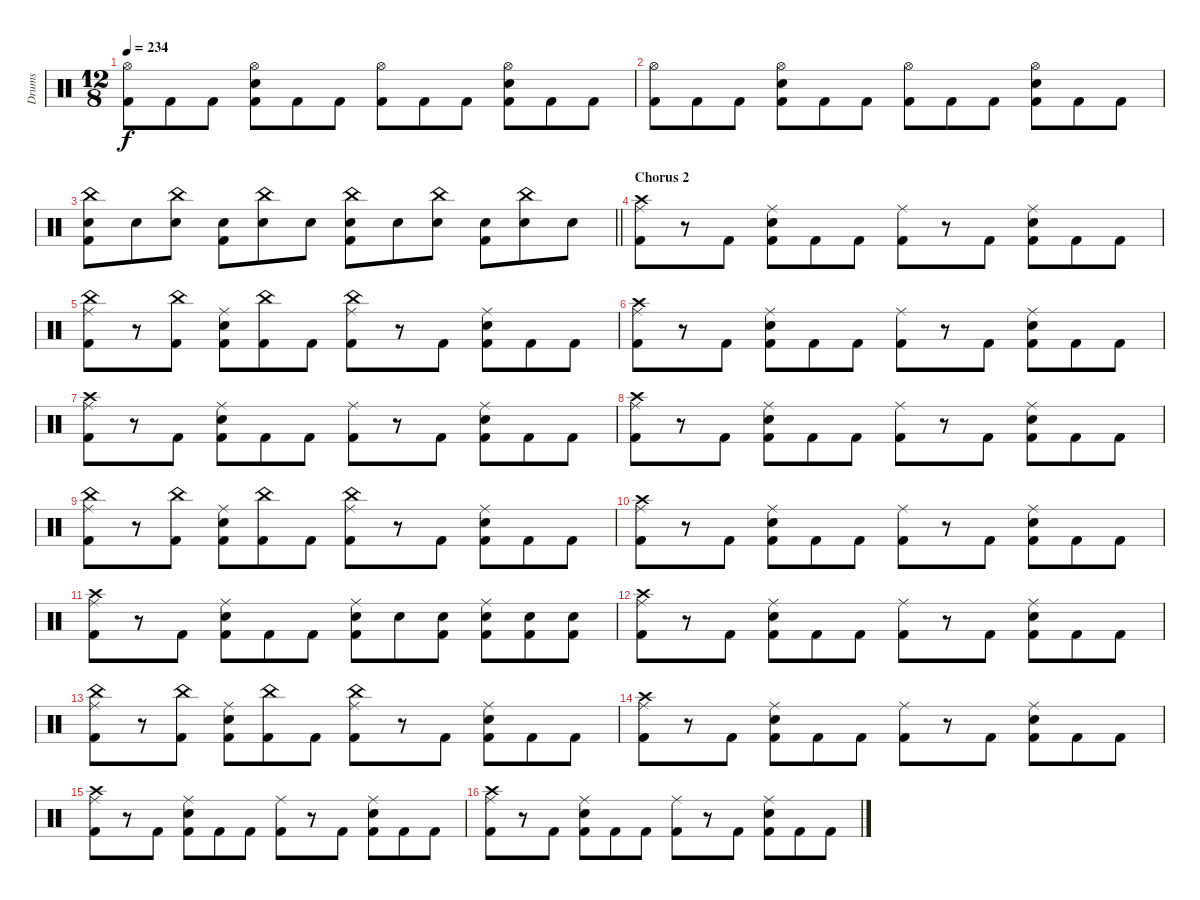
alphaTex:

\track ("Drums" "Drums") {instrument percussion}
\staff {score}
\articulation defaults
\ts (12 8)
\tempo 234
\clef neutral
\ks c
("Hi-Hat (open)" "Kick (hit) 2").8{dy f} "Kick (hit) 2".8 "Kick (hit) 2".8 ("Hi-Hat (open)" "Snare (hit) 2" "Kick (hit) 2").8 "Kick (hit) 2".8 "Kick (hit) 2".8 ("Hi-Hat (open)" "Kick (hit) 2").8 "Kick (hit) 2".8 "Kick (hit) 2".8 ("Hi-Hat (open)" "Snare (hit) 2" "Kick (hit) 2").8 "Kick (hit) 2".8 "Kick (hit) 2".8 |
("Hi-Hat (open)" "Kick (hit) 2").8 "Kick (hit) 2".8 "Kick (hit) 2".8 ("Hi-Hat (open)" "Snare (hit) 2" "Kick (hit) 2").8 "Kick (hit) 2".8 "Kick (hit) 2".8 ("Hi-Hat (open)" "Kick (hit) 2").8 "Kick (hit) 2".8 "Kick (hit) 2".8 ("Hi-Hat (open)" "Snare (hit) 2" "Kick (hit) 2").8 "Kick (hit) 2".8 "Kick (hit) 2".8 |
\barLineRight lightlight
("China (hit)" "Snare (hit) 2" "Kick (hit) 2").8 "Snare (hit) 2".8 ("China (hit)" "Snare (hit) 2").8 ("Snare (hit) 2" "Kick (hit) 2").8 ("China (hit)" "Snare (hit) 2").8 "Snare (hit) 2".8 ("China (hit)" "Snare (hit) 2" "Kick (hit) 2").8 "Snare (hit) 2".8 ("China (hit)" "Snare (hit) 2").8 ("Snare (hit) 2" "Kick (hit) 2").8 ("China (hit)" "Snare (hit) 2").8 "Snare (hit) 2".8 |
\section ("" "Chorus 2")
("Crash high (hit)" "Ride (middle)" "Kick (hit) 2").8 r.8 "Kick (hit) 2".8 ("Ride (middle)" "Snare (hit) 2" "Kick (hit) 2").8 "Kick (hit) 2".8 "Kick (hit) 2".8 ("Ride (middle)" "Kick (hit) 2").8 r.8 "Kick (hit) 2".8 ("Ride (middle)" "Snare (hit) 2" "Kick (hit) 2").8 "Kick (hit) 2".8 "Kick (hit) 2".8 |
("China (hit)" "Ride (middle)" "Kick (hit) 2").8 r.8 ("China (hit)" "Kick (hit) 2").8 ("Ride (middle)" "Snare (hit) 2" "Kick (hit) 2").8 ("China (hit)" "Kick (hit) 2").8 "Kick (hit) 2".8 ("China (hit)" "Ride (middle)" "Kick (hit) 2").8 r.8 "Kick (hit) 2".8 ("Ride (middle)" "Snare (hit) 2" "Kick (hit) 2").8 "Kick (hit) 2".8 "Kick (hit) 2".8 |
("Crash high (hit)" "Ride (middle)" "Kick (hit) 2").8 r.8 "Kick (hit) 2".8 ("Ride (middle)" "Snare (hit) 2" "Kick (hit) 2").8 "Kick (hit) 2".8 "Kick (hit) 2".8 ("Ride (middle)" "Kick (hit) 2").8 r.8 "Kick (hit) 2".8 ("Ride (middle)" "Snare (hit) 2" "Kick (hit) 2").8 "Kick (hit) 2".8 "Kick (hit) 2".8 |
("Crash high (hit)" "Ride (middle)" "Kick (hit) 2").8 r.8 "Kick (hit) 2".8 ("Ride (middle)" "Snare (hit) 2" "Kick (hit) 2").8 "Kick (hit) 2".8 "Kick (hit) 2".8 ("Ride (middle)" "Kick (hit) 2").8 r.8 "Kick (hit) 2".8 ("Ride (middle)" "Snare (hit) 2" "Kick (hit) 2").8 "Kick (hit) 2".8 "Kick (hit) 2".8 |
("Crash high (hit)" "Ride (middle)" "Kick (hit) 2").8 r.8 "Kick (hit) 2".8 ("Ride (middle)" "Snare (hit) 2" "Kick (hit) 2").8 "Kick (hit) 2".8 "Kick (hit) 2".8 ("Ride (middle)" "Kick (hit) 2").8 r.8 "Kick (hit) 2".8 ("Ride (middle)" "Snare (hit) 2" "Kick (hit) 2").8 "Kick (hit) 2".8 "Kick (hit) 2".8 |
("China (hit)" "Ride (middle)" "Kick (hit) 2").8 r.8 ("China (hit)" "Kick (hit) 2").8 ("Ride (middle)" "Snare (hit) 2" "Kick (hit) 2").8 ("China (hit)" "Kick (hit) 2").8 "Kick (hit) 2".8 ("China (hit)" "Ride (middle)" "Kick (hit) 2").8 r.8 "Kick (hit) 2".8 ("Ride (middle)" "Snare (hit) 2" "Kick (hit) 2").8 "Kick (hit) 2".8 "Kick (hit) 2".8 |
("Crash high (hit)" "Ride (middle)" "Kick (hit) 2").8 r.8 "Kick (hit) 2".8 ("Ride (middle)" "Snare (hit) 2" "Kick (hit) 2").8 "Kick (hit) 2".8 "Kick (hit) 2".8 ("Ride (middle)" "Kick (hit) 2").8 r.8 "Kick (hit) 2".8 ("Ride (middle)" "Snare (hit) 2" "Kick (hit) 2").8 "Kick (hit) 2".8 "Kick (hit) 2".8 |
("Crash high (hit)" "Ride (middle)" "Kick (hit) 2").8 r.8 "Kick (hit) 2".8 ("Ride (middle)" "Snare (hit) 2" "Kick (hit) 2").8 "Kick (hit) 2".8 "Kick (hit) 2".8 ("Ride (middle)" "Snare (hit) 2" "Kick (hit) 2").8 "Snare (hit) 2".8 ("Snare (hit) 2" "Kick (hit) 2").8 ("Ride (middle)" "Snare (hit) 2" "Kick (hit) 2").8 ("Snare (hit) 2" "Kick (hit) 2").8 ("Snare (hit) 2" "Kick (hit) 2").8 |
("Crash high (hit)" "Ride (middle)" "Kick (hit) 2").8 r.8 "Kick (hit) 2".8 ("Ride (middle)" "Snare (hit) 2" "Kick (hit) 2").8 "Kick (hit) 2".8 "Kick (hit) 2".8 ("Ride (middle)" "Kick (hit) 2").8 r.8 "Kick (hit) 2".8 ("Ride (middle)" "Snare (hit) 2" "Kick (hit) 2").8 "Kick (hit) 2".8 "Kick (hit) 2".8 |
("China (hit)" "Ride (middle)" "Kick (hit) 2").8 r.8 ("China (hit)" "Kick (hit) 2").8 ("Ride (middle)" "Snare (hit) 2" "Kick (hit) 2").8 ("China (hit)" "Kick (hit) 2").8 "Kick (hit) 2".8 ("China (hit)" "Ride (middle)" "Kick (hit) 2").8 r.8 "Kick (hit) 2".8 ("Ride (middle)" "Snare (hit) 2" "Kick (hit) 2").8 "Kick (hit) 2".8 "Kick (hit) 2".8 |
("Crash high (hit)" "Ride (middle)" "Kick (hit) 2").8 r.8 "Kick (hit) 2".8 ("Ride (middle)" "Snare (hit) 2" "Kick (hit) 2").8 "Kick (hit) 2".8 "Kick (hit) 2".8 ("Ride (middle)" "Kick (hit) 2").8 r.8 "Kick (hit) 2".8 ("Ride (middle)" "Snare (hit) 2" "Kick (hit) 2").8 "Kick (hit) 2".8 "Kick (hit) 2".8 |
("Crash high (hit)" "Ride (middle)" "Kick (hit) 2").8 r.8 "Kick (hit) 2".8 ("Ride (middle)" "Snare (hit) 2" "Kick (hit) 2").8 "Kick (hit) 2".8 "Kick (hit) 2".8 ("Ride (middle)" "Kick (hit) 2").8 r.8 "Kick (hit) 2".8 ("Ride (middle)" "Snare (hit) 2" "Kick (hit) 2").8 "Kick (hit) 2".8 "Kick (hit) 2".8 |
("Crash high (hit)" "Ride (middle)" "Kick (hit) 2").8 r.8 "Kick (hit) 2".8 ("Ride (middle)" "Snare (hit) 2" "Kick (hit) 2").8 "Kick (hit) 2".8 "Kick (hit) 2".8 ("Ride (middle)" "Kick (hit) 2").8 r.8 "Kick (hit) 2".8 ("Ride (middle)" "Snare (hit) 2" "Kick (hit) 2").8 "Kick (hit) 2".8 "Kick (hit) 2".8
